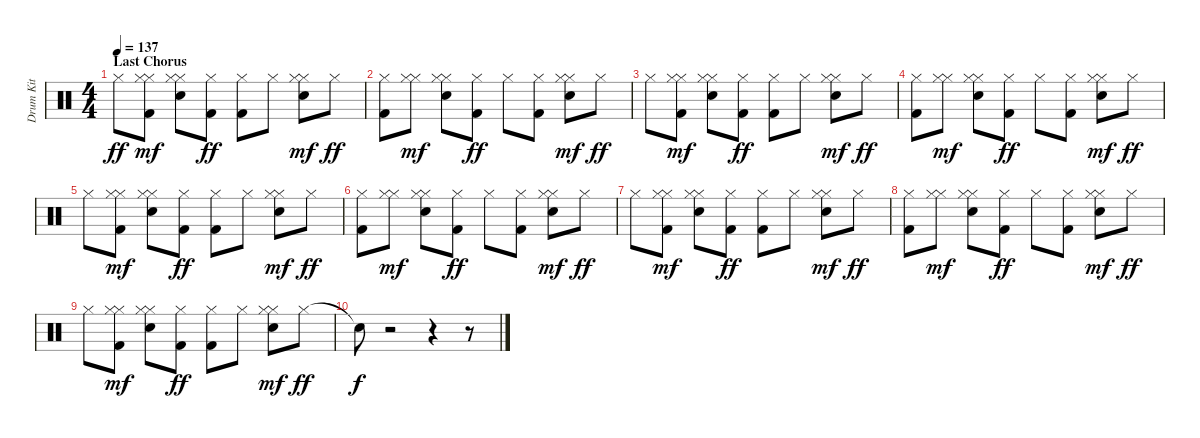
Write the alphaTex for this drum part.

\track ("Drum Kit" "Drum Kit") {instrument percussion}
\staff {score}
\articulation defaults
\ts (4 4)
\section ("" "Last Chorus")
\tempo 137
\clef neutral
\ks c "Hi-Hat (closed)".8{dy ff}
("Kick (hit) 2" "Hi-Hat (closed)" "Hi-Hat (closed)").8{dy mf} ("Hand Clap (hit)" "Hi-Hat (closed)" "Hi-Hat (closed)").8 ("Kick (hit) 2" "Hi-Hat (closed)").8{dy ff} ("Kick (hit) 2" "Hi-Hat (closed)").8 "Hi-Hat (closed)".8 ("Hand Clap (hit)" "Hi-Hat (closed)" "Hi-Hat (closed)").8{dy mf} "Hi-Hat (closed)".8{dy ff} |
("Kick (hit) 2" "Hi-Hat (closed)").8 ("Hi-Hat (closed)" "Hi-Hat (closed)").8{dy mf} ("Hand Clap (hit)" "Hi-Hat (closed)" "Hi-Hat (closed)").8 ("Kick (hit) 2" "Hi-Hat (closed)").8{dy ff} "Hi-Hat (closed)".8 ("Kick (hit) 2" "Hi-Hat (closed)").8 ("Hand Clap (hit)" "Hi-Hat (closed)" "Hi-Hat (closed)").8{dy mf} "Hi-Hat (closed)".8{dy ff} |
"Hi-Hat (closed)".8 ("Kick (hit) 2" "Hi-Hat (closed)" "Hi-Hat (closed)").8{dy mf} ("Hand Clap (hit)" "Hi-Hat (closed)" "Hi-Hat (closed)").8 ("Kick (hit) 2" "Hi-Hat (closed)").8{dy ff} ("Kick (hit) 2" "Hi-Hat (closed)").8 "Hi-Hat (closed)".8 ("Hand Clap (hit)" "Hi-Hat (closed)" "Hi-Hat (closed)").8{dy mf} "Hi-Hat (closed)".8{dy ff} |
("Kick (hit) 2" "Hi-Hat (closed)").8 ("Hi-Hat (closed)" "Hi-Hat (closed)").8{dy mf} ("Hand Clap (hit)" "Hi-Hat (closed)" "Hi-Hat (closed)").8 ("Kick (hit) 2" "Hi-Hat (closed)").8{dy ff} "Hi-Hat (closed)".8 ("Kick (hit) 2" "Hi-Hat (closed)").8 ("Hand Clap (hit)" "Hi-Hat (closed)" "Hi-Hat (closed)").8{dy mf} "Hi-Hat (closed)".8{dy ff} |
"Hi-Hat (closed)".8 ("Kick (hit) 2" "Hi-Hat (closed)" "Hi-Hat (closed)").8{dy mf} ("Hand Clap (hit)" "Hi-Hat (closed)" "Hi-Hat (closed)").8 ("Kick (hit) 2" "Hi-Hat (closed)").8{dy ff} ("Kick (hit) 2" "Hi-Hat (closed)").8 "Hi-Hat (closed)".8 ("Hand Clap (hit)" "Hi-Hat (closed)" "Hi-Hat (closed)").8{dy mf} "Hi-Hat (closed)".8{dy ff} |
("Kick (hit) 2" "Hi-Hat (closed)").8 ("Hi-Hat (closed)" "Hi-Hat (closed)").8{dy mf} ("Hand Clap (hit)" "Hi-Hat (closed)" "Hi-Hat (closed)").8 ("Kick (hit) 2" "Hi-Hat (closed)").8{dy ff} "Hi-Hat (closed)".8 ("Kick (hit) 2" "Hi-Hat (closed)").8 ("Hand Clap (hit)" "Hi-Hat (closed)" "Hi-Hat (closed)").8{dy mf} "Hi-Hat (closed)".8{dy ff} |
"Hi-Hat (closed)".8 ("Kick (hit) 2" "Hi-Hat (closed)" "Hi-Hat (closed)").8{dy mf} ("Hand Clap (hit)" "Hi-Hat (closed)" "Hi-Hat (closed)").8 ("Kick (hit) 2" "Hi-Hat (closed)").8{dy ff} ("Kick (hit) 2" "Hi-Hat (closed)").8 "Hi-Hat (closed)".8 ("Hand Clap (hit)" "Hi-Hat (closed)" "Hi-Hat (closed)").8{dy mf} "Hi-Hat (closed)".8{dy ff} |
("Kick (hit) 2" "Hi-Hat (closed)").8 ("Hi-Hat (closed)" "Hi-Hat (closed)").8{dy mf} ("Hand Clap (hit)" "Hi-Hat (closed)" "Hi-Hat (closed)").8 ("Kick (hit) 2" "Hi-Hat (closed)").8{dy ff} "Hi-Hat (closed)".8 ("Kick (hit) 2" "Hi-Hat (closed)").8 ("Hand Clap (hit)" "Hi-Hat (closed)" "Hi-Hat (closed)").8{dy mf} "Hi-Hat (closed)".8{dy ff} |
"Hi-Hat (closed)".8 ("Kick (hit) 2" "Hi-Hat (closed)" "Hi-Hat (closed)").8{dy mf} ("Hand Clap (hit)" "Hi-Hat (closed)" "Hi-Hat (closed)").8 ("Kick (hit) 2" "Hi-Hat (closed)").8{dy ff} ("Kick (hit) 2" "Hi-Hat (closed)").8 "Hi-Hat (closed)".8 ("Hand Clap (hit)" "Hi-Hat (closed)" "Hi-Hat (closed)").8{dy mf} "Hi-Hat (closed)".8{dy ff} |
"Snare (hit)"{t}.8{dy f} r.2 r.4 r.8
